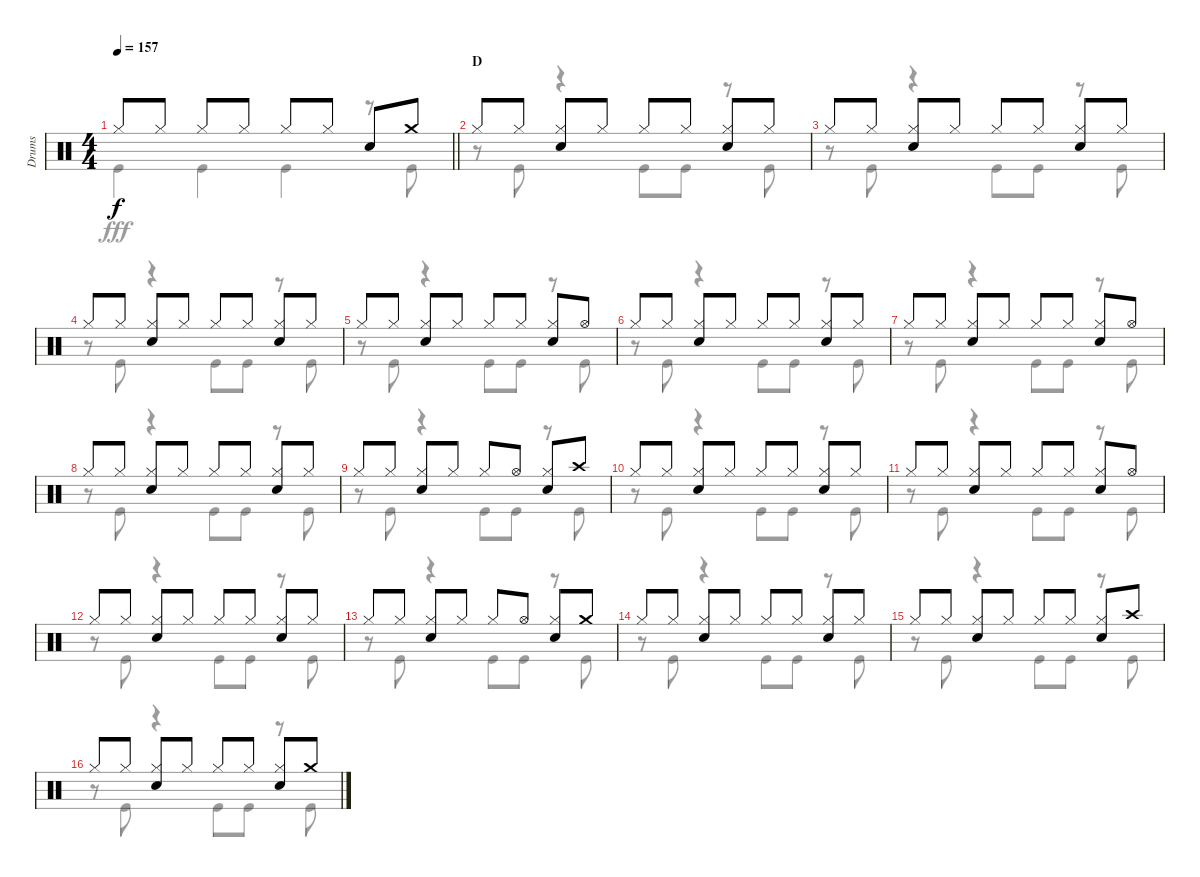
\track ("Drums" "Drums") {instrument percussion}
\staff {score}
\articulation defaults
\voice
\ts (4 4)
\tempo 157
\clef neutral
\barLineRight lightlight
\ks c "Hi-Hat (closed)".8{dy f} "Hi-Hat (closed)".8 "Hi-Hat (closed)".8 "Hi-Hat (closed)".8 "Hi-Hat (closed)".8 "Hi-Hat (closed)".8 "Snare (hit) 2".8 "Crash medium (hit)".8
|
\section ("" "D")
"Hi-Hat (closed)".8 "Hi-Hat (closed)".8 ("Hi-Hat (closed)" "Snare (hit) 2").8 "Hi-Hat (closed)".8 "Hi-Hat (closed)".8 "Hi-Hat (closed)".8 ("Hi-Hat (closed)" "Snare (hit) 2").8 "Hi-Hat (closed)".8 |
"Hi-Hat (closed)".8 "Hi-Hat (closed)".8 ("Hi-Hat (closed)" "Snare (hit) 2").8 "Hi-Hat (closed)".8 "Hi-Hat (closed)".8 "Hi-Hat (closed)".8 ("Hi-Hat (closed)" "Snare (hit) 2").8 "Hi-Hat (closed)".8 |
"Hi-Hat (closed)".8 "Hi-Hat (closed)".8 ("Hi-Hat (closed)" "Snare (hit) 2").8 "Hi-Hat (closed)".8 "Hi-Hat (closed)".8 "Hi-Hat (closed)".8 ("Hi-Hat (closed)" "Snare (hit) 2").8 "Hi-Hat (closed)".8 |
"Hi-Hat (closed)".8 "Hi-Hat (closed)".8 ("Hi-Hat (closed)" "Snare (hit) 2").8 "Hi-Hat (closed)".8 "Hi-Hat (closed)".8 "Hi-Hat (closed)".8 ("Hi-Hat (closed)" "Snare (hit) 2").8 "Hi-Hat (open)".8 |
"Hi-Hat (closed)".8 "Hi-Hat (closed)".8 ("Hi-Hat (closed)" "Snare (hit) 2").8 "Hi-Hat (closed)".8 "Hi-Hat (closed)".8 "Hi-Hat (closed)".8 ("Hi-Hat (closed)" "Snare (hit) 2").8 "Hi-Hat (closed)".8 |
"Hi-Hat (closed)".8 "Hi-Hat (closed)".8 ("Hi-Hat (closed)" "Snare (hit) 2").8 "Hi-Hat (closed)".8 "Hi-Hat (closed)".8 "Hi-Hat (closed)".8 ("Hi-Hat (closed)" "Snare (hit) 2").8 "Hi-Hat (open)".8 |
"Hi-Hat (closed)".8 "Hi-Hat (closed)".8 ("Hi-Hat (closed)" "Snare (hit) 2").8 "Hi-Hat (closed)".8 "Hi-Hat (closed)".8 "Hi-Hat (closed)".8 ("Hi-Hat (closed)" "Snare (hit) 2").8 "Hi-Hat (closed)".8 |
"Hi-Hat (closed)".8 "Hi-Hat (closed)".8 ("Hi-Hat (closed)" "Snare (hit) 2").8 "Hi-Hat (closed)".8 "Hi-Hat (closed)".8 "Hi-Hat (open)".8 ("Hi-Hat (closed)" "Snare (hit) 2").8 "Crash high (hit)".8 |
"Hi-Hat (closed)".8 "Hi-Hat (closed)".8 ("Hi-Hat (closed)" "Snare (hit) 2").8 "Hi-Hat (closed)".8 "Hi-Hat (closed)".8 "Hi-Hat (closed)".8 ("Hi-Hat (closed)" "Snare (hit) 2").8 "Hi-Hat (closed)".8 |
"Hi-Hat (closed)".8 "Hi-Hat (closed)".8 ("Hi-Hat (closed)" "Snare (hit) 2").8 "Hi-Hat (closed)".8 "Hi-Hat (closed)".8 "Hi-Hat (closed)".8 ("Hi-Hat (closed)" "Snare (hit) 2").8 "Hi-Hat (open)".8 |
"Hi-Hat (closed)".8 "Hi-Hat (closed)".8 ("Hi-Hat (closed)" "Snare (hit) 2").8 "Hi-Hat (closed)".8 "Hi-Hat (closed)".8 "Hi-Hat (closed)".8 ("Hi-Hat (closed)" "Snare (hit) 2").8 "Hi-Hat (closed)".8 |
"Hi-Hat (closed)".8 "Hi-Hat (closed)".8 ("Hi-Hat (closed)" "Snare (hit) 2").8 "Hi-Hat (closed)".8 "Hi-Hat (closed)".8 "Hi-Hat (open)".8 ("Hi-Hat (closed)" "Snare (hit) 2").8 "Crash medium (hit)".8 |
"Hi-Hat (closed)".8 "Hi-Hat (closed)".8 ("Hi-Hat (closed)" "Snare (hit) 2").8 "Hi-Hat (closed)".8 "Hi-Hat (closed)".8 "Hi-Hat (closed)".8 ("Hi-Hat (closed)" "Snare (hit) 2").8 "Hi-Hat (closed)".8 |
"Hi-Hat (closed)".8 "Hi-Hat (closed)".8 ("Hi-Hat (closed)" "Snare (hit) 2").8 "Hi-Hat (closed)".8 "Hi-Hat (closed)".8 "Hi-Hat (closed)".8 ("Hi-Hat (closed)" "Snare (hit) 2").8 "Crash high (hit)".8 |
"Hi-Hat (closed)".8 "Hi-Hat (closed)".8 ("Hi-Hat (closed)" "Snare (hit) 2").8 "Hi-Hat (closed)".8 "Hi-Hat (closed)".8 "Hi-Hat (closed)".8 ("Hi-Hat (closed)" "Snare (hit) 2").8 "Crash medium (hit)".8
\voice
\clef neutral
\ottava regular
\simile none
\barLineRight lightlight
\ks c "Kick (hit)".4{dy fff} "Kick (hit)".4 "Kick (hit)".4
r.8 "Kick (hit)".8 |
r.8 "Kick (hit)".8 r.4 "Kick (hit)".8 "Kick (hit)".8 r.8 "Kick (hit)".8 |
r.8 "Kick (hit)".8 r.4 "Kick (hit)".8 "Kick (hit)".8 r.8 "Kick (hit)".8 |
r.8 "Kick (hit)".8 r.4 "Kick (hit)".8 "Kick (hit)".8 r.8 "Kick (hit)".8 |
r.8 "Kick (hit)".8 r.4 "Kick (hit)".8 "Kick (hit)".8 r.8 "Kick (hit)".8 |
r.8 "Kick (hit)".8 r.4 "Kick (hit)".8 "Kick (hit)".8 r.8 "Kick (hit)".8 |
r.8 "Kick (hit)".8 r.4 "Kick (hit)".8 "Kick (hit)".8 r.8 "Kick (hit)".8 |
r.8 "Kick (hit)".8 r.4 "Kick (hit)".8 "Kick (hit)".8 r.8 "Kick (hit)".8 |
r.8 "Kick (hit)".8 r.4 "Kick (hit)".8 "Kick (hit)".8 r.8 "Kick (hit)".8 |
r.8 "Kick (hit)".8 r.4 "Kick (hit)".8 "Kick (hit)".8 r.8 "Kick (hit)".8 |
r.8 "Kick (hit)".8 r.4 "Kick (hit)".8 "Kick (hit)".8 r.8 "Kick (hit)".8 |
r.8 "Kick (hit)".8 r.4 "Kick (hit)".8 "Kick (hit)".8 r.8 "Kick (hit)".8 |
r.8 "Kick (hit)".8 r.4 "Kick (hit)".8 "Kick (hit)".8 r.8 "Kick (hit)".8 |
r.8 "Kick (hit)".8 r.4 "Kick (hit)".8 "Kick (hit)".8 r.8 "Kick (hit)".8 |
r.8 "Kick (hit)".8 r.4 "Kick (hit)".8 "Kick (hit)".8 r.8 "Kick (hit)".8 |
r.8 "Kick (hit)".8 r.4 "Kick (hit)".8 "Kick (hit)".8 r.8 "Kick (hit)".8
